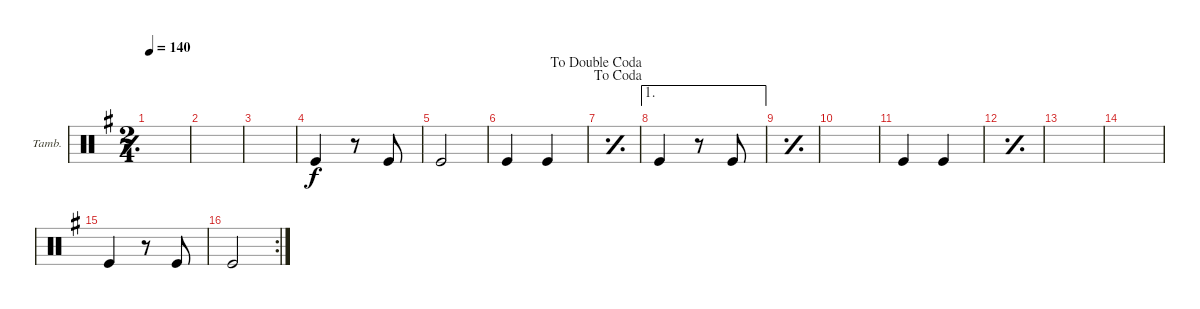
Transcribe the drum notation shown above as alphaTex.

\defaultSystemsLayout 4
\bracketExtendMode groupsimilarinstruments
\firstSystemTrackNameOrientation horizontal
\otherSystemsTrackNameOrientation horizontal
\track ("Tambourine" "Tamb.") {instrument percussion}
\staff {score}
\articulation defaults
\ts (2 4)
\tempo 140
\clef neutral
\simile simple
\ks g
|
|
|
\simile none "Kick (hit)".4
r.8 "Kick (hit)".8 |
"Kick (hit)".2 |
"Kick (hit)".4 "Kick (hit)".4 |
\jump dacoda
\jump dadoublecoda
\simile simple
|
\ae 1
\simile none "Kick (hit)".4
r.8 "Kick (hit)".8 |
\simile simple
|
|
\simile none "Kick (hit)".4 "Kick (hit)".4
|
\simile simple
|
|
|
\simile none "Kick (hit)".4
r.8 "Kick (hit)".8 |
\rc 2 "Kick (hit)".2
